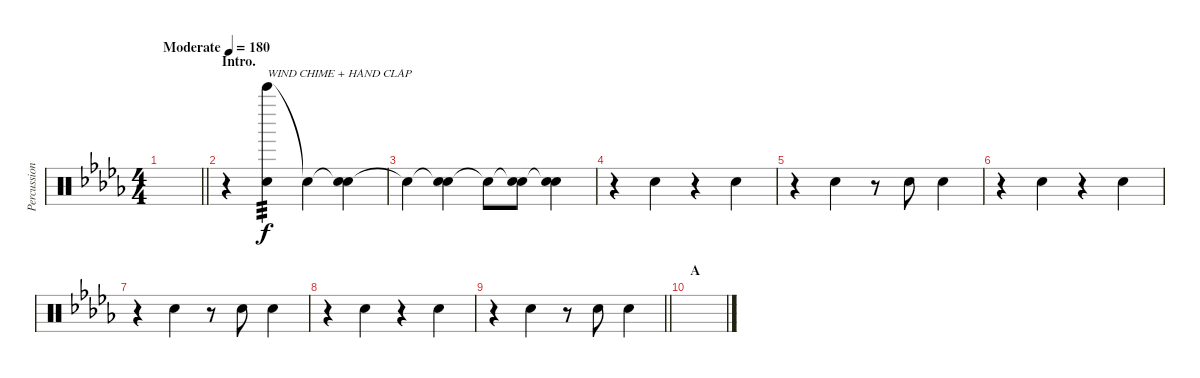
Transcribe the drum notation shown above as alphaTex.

\track ("Percussion I (Tainaka Ritsu)" "Percussion") {instrument percussion}
\staff {score}
\articulation defaults
\ts (4 4)
\tempo (180 "Moderate")
\clef neutral
\barLineRight lightlight
\ks db
|
\section ("" "Intro.")
r.4 ("Bell Tree (hit)" "Hand Clap (hit)").4{txt "WIND CHIME + HAND CLAP" tp 3} "Snare (hit)"{t}.4 ("Snare (hit)"{t} "Hand Clap (hit)").4 |
"Snare (hit)"{t}.4 ("Snare (hit)"{t} "Hand Clap (hit)").4 "Snare (hit)"{t}.8 ("Snare (hit)"{t} "Hand Clap (hit)").8 ("Snare (hit)"{t} "Hand Clap (hit)").4 |
r.4 "Hand Clap (hit)".4 r.4 "Hand Clap (hit)".4 |
r.4 "Hand Clap (hit)".4 r.8 "Hand Clap (hit)".8 "Hand Clap (hit)".4 |
r.4 "Hand Clap (hit)".4 r.4 "Hand Clap (hit)".4 |
r.4 "Hand Clap (hit)".4 r.8 "Hand Clap (hit)".8 "Hand Clap (hit)".4 |
r.4 "Hand Clap (hit)".4 r.4 "Hand Clap (hit)".4 |
\barLineRight lightlight
r.4 "Hand Clap (hit)".4 r.8 "Hand Clap (hit)".8 "Hand Clap (hit)".4 |
\section ("" "A")
